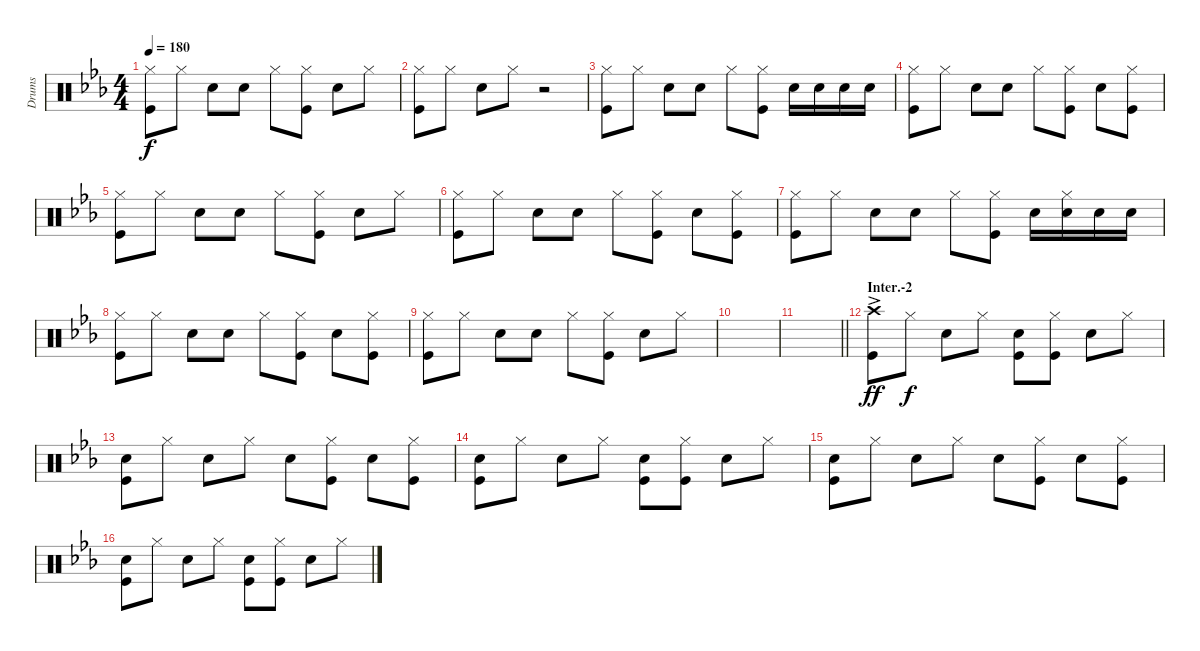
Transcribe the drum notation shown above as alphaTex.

\track ("Drums" "Drums") {instrument percussion}
\staff {score}
\articulation defaults
\ts (4 4)
\tempo 180
\clef neutral
\ks cminor
("Hi-Hat (closed)" "Kick (hit)").8{dy f} "Hi-Hat (closed)".8 "Snare (hit) 2".8 "Snare (hit) 2".8 "Hi-Hat (closed)".8 ("Hi-Hat (closed)" "Kick (hit)").8 "Snare (hit) 2".8 "Hi-Hat (closed)".8 |
("Hi-Hat (closed)" "Kick (hit)").8 "Hi-Hat (closed)".8 "Snare (hit) 2".8 "Hi-Hat (closed)".8 r.2 |
("Hi-Hat (closed)" "Kick (hit)").8 "Hi-Hat (closed)".8 "Snare (hit) 2".8 "Snare (hit) 2".8 "Hi-Hat (closed)".8 ("Hi-Hat (closed)" "Kick (hit)").8 "Snare (hit) 2".16 "Snare (hit) 2".16 "Snare (hit) 2".16 "Snare (hit) 2".16 |
("Hi-Hat (closed)" "Kick (hit)").8 "Hi-Hat (closed)".8 "Snare (hit) 2".8 "Snare (hit) 2".8 "Hi-Hat (closed)".8 ("Kick (hit)" "Hi-Hat (closed)").8 "Snare (hit) 2".8 ("Hi-Hat (closed)" "Kick (hit)").8 |
("Hi-Hat (closed)" "Kick (hit)").8 "Hi-Hat (closed)".8 "Snare (hit) 2".8 "Snare (hit) 2".8 "Hi-Hat (closed)".8 ("Hi-Hat (closed)" "Kick (hit)").8 "Snare (hit) 2".8 "Hi-Hat (closed)".8 |
("Hi-Hat (closed)" "Kick (hit)").8 "Hi-Hat (closed)".8 "Snare (hit) 2".8 "Snare (hit) 2".8 "Hi-Hat (closed)".8 ("Hi-Hat (closed)" "Kick (hit)").8 "Snare (hit) 2".8 ("Kick (hit)" "Hi-Hat (closed)").8 |
("Hi-Hat (closed)" "Kick (hit)").8 "Hi-Hat (closed)".8 "Snare (hit) 2".8 "Snare (hit) 2".8 "Hi-Hat (closed)".8 ("Hi-Hat (closed)" "Kick (hit)").8 "Snare (hit) 2".16 ("Snare (hit) 2" "Hi-Hat (closed)").16 "Snare (hit) 2".16 "Snare (hit) 2".16 |
("Hi-Hat (closed)" "Kick (hit)").8 "Hi-Hat (closed)".8 "Snare (hit) 2".8 "Snare (hit) 2".8 "Hi-Hat (closed)".8 ("Hi-Hat (closed)" "Kick (hit)").8 "Snare (hit) 2".8 ("Kick (hit)" "Hi-Hat (closed)").8 |
("Kick (hit)" "Hi-Hat (closed)").8 "Hi-Hat (closed)".8 "Snare (hit) 2".8 "Snare (hit) 2".8 "Hi-Hat (closed)".8 ("Kick (hit)" "Hi-Hat (closed)").8 "Snare (hit) 2".8 "Hi-Hat (closed)".8 |
|
\barLineRight lightlight
|
\section ("" "Inter.-2")
("Crash high (hit)"{ac} "Kick (hit)").8{dy ff} "Hi-Hat (closed)".8{dy f} "Snare (hit) 2".8 "Hi-Hat (closed)".8 ("Snare (hit) 2" "Kick (hit)").8 ("Kick (hit)" "Hi-Hat (closed)").8 "Snare (hit) 2".8 "Hi-Hat (closed)".8 |
("Snare (hit) 2" "Kick (hit)").8 "Hi-Hat (closed)".8 "Snare (hit) 2".8 "Hi-Hat (closed)".8 "Snare (hit) 2".8 ("Kick (hit)" "Hi-Hat (closed)").8 "Snare (hit) 2".8 ("Kick (hit)" "Hi-Hat (closed)").8 |
("Kick (hit)" "Snare (hit) 2").8 "Hi-Hat (closed)".8 "Snare (hit) 2".8 "Hi-Hat (closed)".8 ("Kick (hit)" "Snare (hit) 2").8 ("Hi-Hat (closed)" "Kick (hit)").8 "Snare (hit) 2".8 "Hi-Hat (closed)".8 |
("Kick (hit)" "Snare (hit) 2").8 "Hi-Hat (closed)".8 "Snare (hit) 2".8 "Hi-Hat (closed)".8 "Snare (hit) 2".8 ("Hi-Hat (closed)" "Kick (hit)").8 "Snare (hit) 2".8 ("Hi-Hat (closed)" "Kick (hit)").8 |
("Kick (hit)" "Snare (hit) 2").8 "Hi-Hat (closed)".8 "Snare (hit) 2".8 "Hi-Hat (closed)".8 ("Kick (hit)" "Snare (hit) 2").8 ("Kick (hit)" "Hi-Hat (closed)").8 "Snare (hit) 2".8 "Hi-Hat (closed)".8
